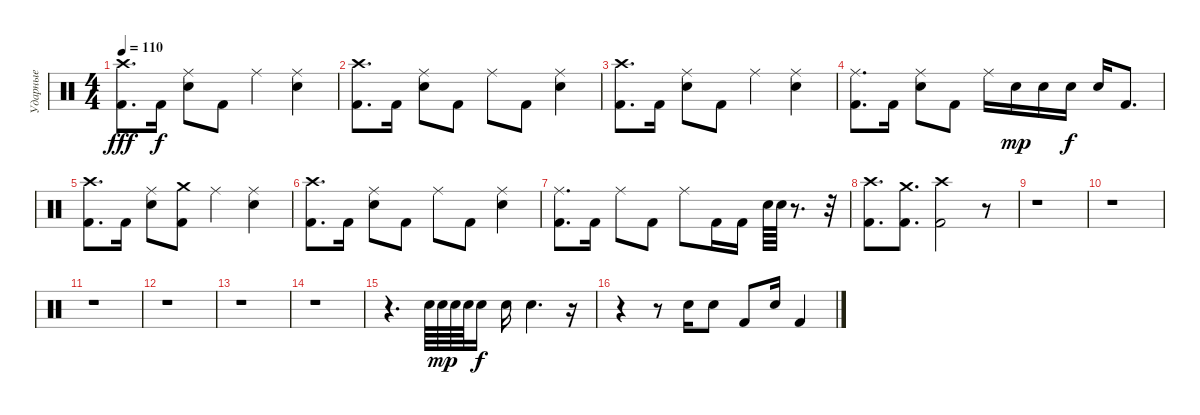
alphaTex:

\track ("Ударные" "Ударные") {instrument percussion}
\staff {score}
\articulation defaults
\ts (4 4)
\tempo 110
\clef neutral
\ks c
("Crash high (hit)" "Kick (hit) 2").8{d dy fff} "Kick (hit) 2".16{dy f} ("Electric Snare (hit)" "Ride (middle)").8 "Kick (hit) 2".8 "Ride (middle)".4 ("Electric Snare (hit)" "Ride (middle)").4 |
("Crash high (hit)" "Kick (hit) 2").8{d} "Kick (hit) 2".16 ("Electric Snare (hit)" "Ride (middle)").8 "Kick (hit) 2".8 "Ride (middle)".8 "Kick (hit) 2".8 ("Electric Snare (hit)" "Ride (middle)").4 |
("Crash high (hit)" "Kick (hit) 2").8{d} "Kick (hit) 2".16 ("Electric Snare (hit)" "Ride (middle)").8 "Kick (hit) 2".8 "Ride (middle)".4 ("Electric Snare (hit)" "Ride (middle)").4 |
("Kick (hit) 2" "Ride (middle)").8{d} "Kick (hit) 2".16 ("Electric Snare (hit)" "Ride (middle)").8 "Kick (hit) 2".8 "Ride (middle)".16 "Electric Snare (hit)".16{dy mp} "Electric Snare (hit)".16 "Electric Snare (hit)".16{dy f} "Electric Snare (hit)".16 "Kick (hit) 2".8{d} |
("Crash high (hit)" "Kick (hit) 2").8{d} "Kick (hit) 2".16 ("Electric Snare (hit)" "Ride (middle)").8 ("Crash medium (hit)" "Kick (hit) 2").8 "Ride (middle)".4 ("Electric Snare (hit)" "Ride (middle)").4 |
("Crash high (hit)" "Kick (hit) 2").8{d} "Kick (hit) 2".16 ("Electric Snare (hit)" "Ride (middle)").8 "Kick (hit) 2".8 "Ride (middle)".8 "Kick (hit) 2".8 ("Electric Snare (hit)" "Ride (middle)").4 |
("Kick (hit) 2" "Ride (middle)").8{d} "Kick (hit) 2".16 "Ride (middle)".8 "Kick (hit) 2".8 "Ride (middle)".8 "Kick (hit) 2".16 "Kick (hit) 2".16 "Electric Snare (hit)".64 "Electric Snare (hit)".64 r.8{d} r.32 |
("Crash high (hit)" "Kick (hit) 2").8{d} ("Crash medium (hit)" "Kick (hit) 2").8{d} ("Crash high (hit)" "Kick (hit) 2").2 r.8 |
r.1 |
r.1 |
r.1 |
r.1 |
r.1 |
r.1 |
r.4{d} "Electric Snare (hit)".64 "Electric Snare (hit)".64{dy mp} "Electric Snare (hit)".64 "Electric Snare (hit)".64 "Electric Snare (hit)".16{dy f} "Electric Snare (hit)".16 "Electric Snare (hit)".4{d} r.16 |
r.4 r.8 "Electric Snare (hit)".16 "Electric Snare (hit)".8 "Kick (hit) 2".8 "Electric Snare (hit)".16 "Kick (hit) 2".4
